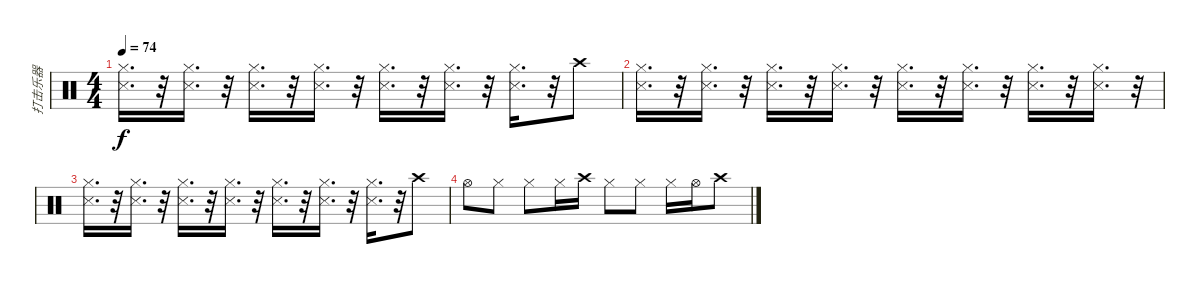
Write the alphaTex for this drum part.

\track ("打击乐器" "打击乐器") {instrument percussion}
\staff {score}
\articulation defaults
\ts (4 4)
\tempo 74
\clef neutral
\ks c
("Hi-Hat (closed)" "Snare (side stick) 3").16{d dy f} r.32 ("Hi-Hat (closed)" "Snare (side stick) 3").16{d} r.32 ("Hi-Hat (closed)" "Snare (side stick) 3").16{d} r.32 ("Hi-Hat (closed)" "Snare (side stick) 3").16{d} r.32 ("Hi-Hat (closed)" "Snare (side stick) 3").16{d} r.32 ("Hi-Hat (closed)" "Snare (side stick) 3").16{d} r.32 ("Hi-Hat (closed)" "Snare (side stick) 3").16{d} r.32 "Crash high (hit)".8 |
("Hi-Hat (closed)" "Snare (side stick) 3").16{d} r.32 ("Hi-Hat (closed)" "Snare (side stick) 3").16{d} r.32 ("Hi-Hat (closed)" "Snare (side stick) 3").16{d} r.32 ("Hi-Hat (closed)" "Snare (side stick) 3").16{d} r.32 ("Hi-Hat (closed)" "Snare (side stick) 3").16{d} r.32 ("Hi-Hat (closed)" "Snare (side stick) 3").16{d} r.32 ("Hi-Hat (closed)" "Snare (side stick) 3").16{d} r.32 ("Hi-Hat (closed)" "Snare (side stick) 3").16{d} r.32 |
("Hi-Hat (closed)" "Snare (side stick) 3").16{d} r.32 ("Hi-Hat (closed)" "Snare (side stick) 3").16{d} r.32 ("Hi-Hat (closed)" "Snare (side stick) 3").16{d} r.32 ("Hi-Hat (closed)" "Snare (side stick) 3").16{d} r.32 ("Hi-Hat (closed)" "Snare (side stick) 3").16{d} r.32 ("Hi-Hat (closed)" "Snare (side stick) 3").16{d} r.32 ("Hi-Hat (closed)" "Snare (side stick) 3").16{d} r.32 "Crash high (hit)".8 |
"Hi-Hat (open)".8 "Hi-Hat (closed)".8 "Hi-Hat (closed)".8 "Hi-Hat (closed)".16 "Crash high (hit)".16 "Hi-Hat (closed)".8 "Hi-Hat (closed)".8 "Hi-Hat (closed)".16 "Hi-Hat (open)".16 "Crash high (hit)".8
